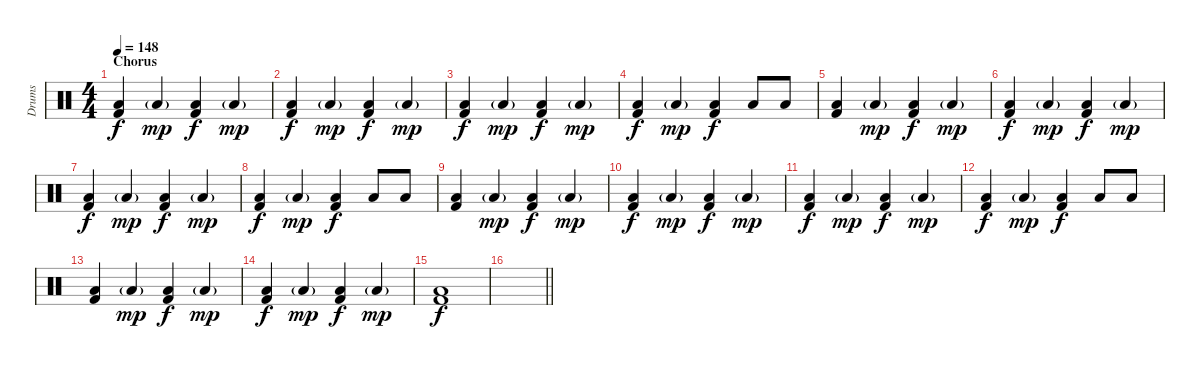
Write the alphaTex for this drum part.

\track ("Drums" "Drums") {instrument percussion}
\staff {score}
\articulation defaults
\ts (4 4)
\section ("" "Chorus")
\tempo 148
\clef neutral
\ks c
("Kick (hit) 2" "Low Floor Tom (hit)").4{dy f} "Low Floor Tom (hit)"{g}.4{dy mp} ("Kick (hit) 2" "Low Floor Tom (hit)").4{dy f} "Low Floor Tom (hit)"{g}.4{dy mp} |
("Kick (hit) 2" "Low Floor Tom (hit)").4{dy f} "Low Floor Tom (hit)"{g}.4{dy mp} ("Kick (hit) 2" "Low Floor Tom (hit)").4{dy f} "Low Floor Tom (hit)"{g}.4{dy mp} |
("Kick (hit) 2" "Low Floor Tom (hit)").4{dy f} "Low Floor Tom (hit)"{g}.4{dy mp} ("Kick (hit) 2" "Low Floor Tom (hit)").4{dy f} "Low Floor Tom (hit)"{g}.4{dy mp} |
("Kick (hit) 2" "Low Floor Tom (hit)").4{dy f} "Low Floor Tom (hit)"{g}.4{dy mp} ("Kick (hit) 2" "Low Floor Tom (hit)").4{dy f} "Low Floor Tom (hit)".8 "Low Floor Tom (hit)".8 |
("Kick (hit) 2" "Low Floor Tom (hit)").4 "Low Floor Tom (hit)"{g}.4{dy mp} ("Kick (hit) 2" "Low Floor Tom (hit)").4{dy f} "Low Floor Tom (hit)"{g}.4{dy mp} |
("Kick (hit) 2" "Low Floor Tom (hit)").4{dy f} "Low Floor Tom (hit)"{g}.4{dy mp} ("Kick (hit) 2" "Low Floor Tom (hit)").4{dy f} "Low Floor Tom (hit)"{g}.4{dy mp} |
("Kick (hit) 2" "Low Floor Tom (hit)").4{dy f} "Low Floor Tom (hit)"{g}.4{dy mp} ("Kick (hit) 2" "Low Floor Tom (hit)").4{dy f} "Low Floor Tom (hit)"{g}.4{dy mp} |
("Kick (hit) 2" "Low Floor Tom (hit)").4{dy f} "Low Floor Tom (hit)"{g}.4{dy mp} ("Kick (hit) 2" "Low Floor Tom (hit)").4{dy f} "Low Floor Tom (hit)".8 "Low Floor Tom (hit)".8 |
("Kick (hit) 2" "Low Floor Tom (hit)").4 "Low Floor Tom (hit)"{g}.4{dy mp} ("Kick (hit) 2" "Low Floor Tom (hit)").4{dy f} "Low Floor Tom (hit)"{g}.4{dy mp} |
("Kick (hit) 2" "Low Floor Tom (hit)").4{dy f} "Low Floor Tom (hit)"{g}.4{dy mp} ("Kick (hit) 2" "Low Floor Tom (hit)").4{dy f} "Low Floor Tom (hit)"{g}.4{dy mp} |
("Kick (hit) 2" "Low Floor Tom (hit)").4{dy f} "Low Floor Tom (hit)"{g}.4{dy mp} ("Kick (hit) 2" "Low Floor Tom (hit)").4{dy f} "Low Floor Tom (hit)"{g}.4{dy mp} |
("Kick (hit) 2" "Low Floor Tom (hit)").4{dy f} "Low Floor Tom (hit)"{g}.4{dy mp} ("Kick (hit) 2" "Low Floor Tom (hit)").4{dy f} "Low Floor Tom (hit)".8 "Low Floor Tom (hit)".8 |
("Kick (hit) 2" "Low Floor Tom (hit)").4 "Low Floor Tom (hit)"{g}.4{dy mp} ("Kick (hit) 2" "Low Floor Tom (hit)").4{dy f} "Low Floor Tom (hit)"{g}.4{dy mp} |
("Kick (hit) 2" "Low Floor Tom (hit)").4{dy f} "Low Floor Tom (hit)"{g}.4{dy mp} ("Kick (hit) 2" "Low Floor Tom (hit)").4{dy f} "Low Floor Tom (hit)"{g}.4{dy mp} |
("Kick (hit) 2" "Low Floor Tom (hit)").1{dy f} |
\barLineRight lightlight
